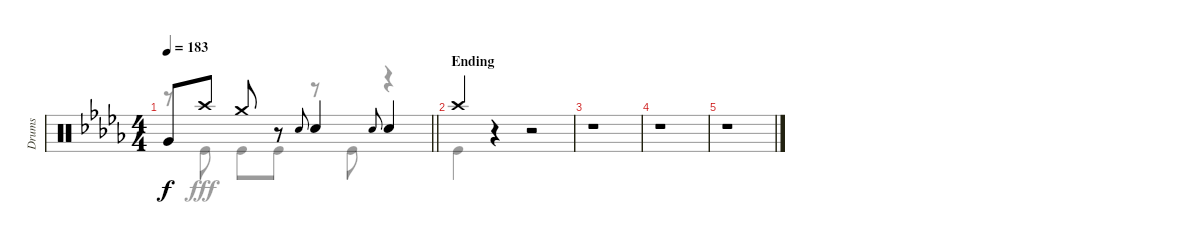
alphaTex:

\track ("Drums" "Drums") {instrument percussion}
\staff {score}
\articulation defaults
\voice
\ts (4 4)
\tempo 183
\clef neutral
\barLineRight lightlight
\ks db "Very Low Tom (hit)".8{dy f} "Crash high (hit)".8 "Crash medium (hit)".8
r.8 "Snare (hit) 2".8{gr onbeat} "Snare (hit) 2".4 "Snare (hit) 2".8{gr onbeat} "Snare (hit) 2".4 |
\section ("" "Ending")
"Crash high (hit)".4 r.4 r.2 |
r.1 |
r.1 |
r.1
\voice
\clef neutral
\ottava regular
\simile none
\barLineRight lightlight
\ks db
r.8{dy fff} "Kick (hit)".8 "Kick (hit)".8 "Kick (hit)".8 r.8 "Kick (hit)".8 r.4 |
"Kick (hit)".4 r.4 r.2 |
r.1 |
r.1 |
r.1
